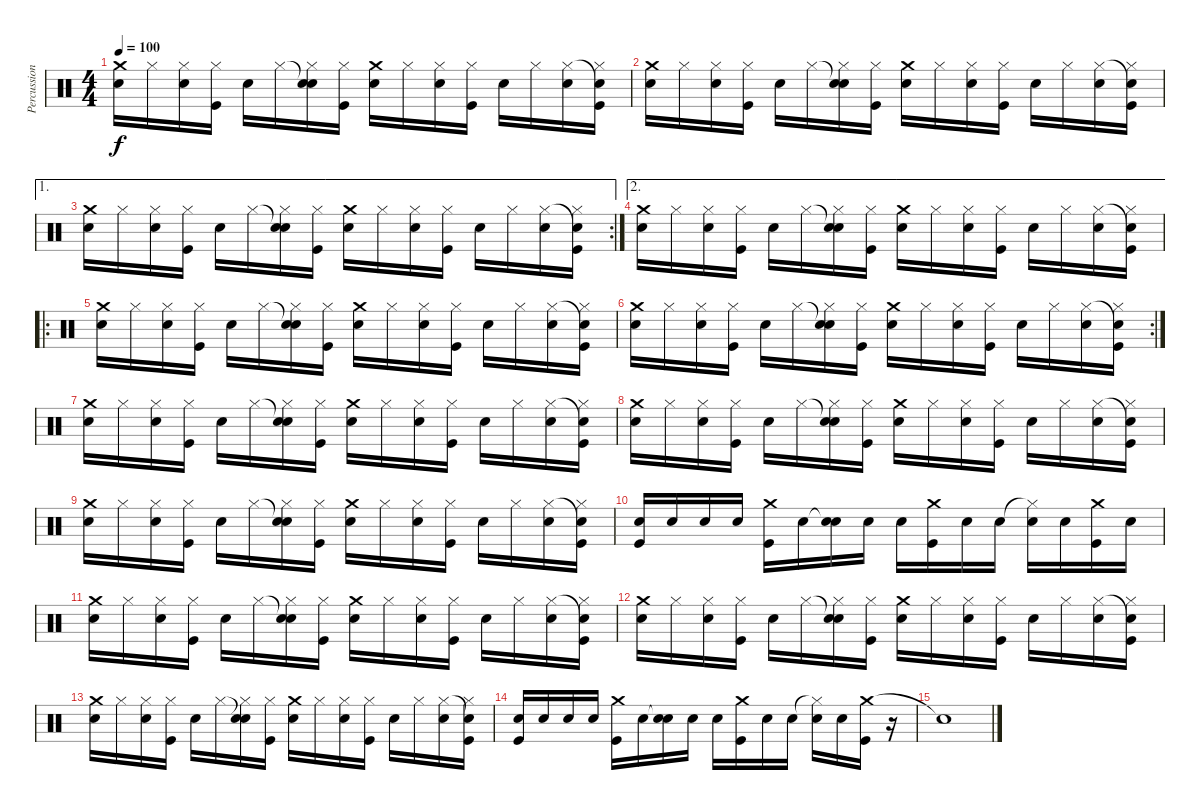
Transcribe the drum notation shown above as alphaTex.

\track ("Percussion" "Percussion") {instrument percussion}
\staff {score}
\articulation defaults
\ts (4 4)
\tempo 100
\clef neutral
\ks c
("Crash medium (hit)" "Electric Snare (hit)").16{dy f} "Hi-Hat (closed)".16 ("Hi-Hat (closed)" "Electric Snare (hit)").16 ("Hi-Hat (closed)" "Kick (hit)").16 "Electric Snare (hit)".16 "Hi-Hat (closed)".16 ("Snare (hit)"{t} "Hi-Hat (closed)" "Electric Snare (hit)").16 ("Hi-Hat (closed)" "Kick (hit)").16 ("Crash medium (hit)" "Electric Snare (hit)").16 "Hi-Hat (closed)".16 ("Hi-Hat (closed)" "Electric Snare (hit)").16 ("Hi-Hat (closed)" "Kick (hit)").16 "Electric Snare (hit)".16 "Hi-Hat (closed)".16 ("Hi-Hat (closed)" "Electric Snare (hit)").16 ("Snare (hit)"{t} "Hi-Hat (closed)" "Kick (hit)").16 |
("Crash medium (hit)" "Electric Snare (hit)").16 "Hi-Hat (closed)".16 ("Hi-Hat (closed)" "Electric Snare (hit)").16 ("Hi-Hat (closed)" "Kick (hit)").16 "Electric Snare (hit)".16 "Hi-Hat (closed)".16 ("Snare (hit)"{t} "Hi-Hat (closed)" "Electric Snare (hit)").16 ("Hi-Hat (closed)" "Kick (hit)").16 ("Crash medium (hit)" "Electric Snare (hit)").16 "Hi-Hat (closed)".16 ("Hi-Hat (closed)" "Electric Snare (hit)").16 ("Hi-Hat (closed)" "Kick (hit)").16 "Electric Snare (hit)".16 "Hi-Hat (closed)".16 ("Hi-Hat (closed)" "Electric Snare (hit)").16 ("Snare (hit)"{t} "Hi-Hat (closed)" "Kick (hit)").16 |
\ae 1
\rc 2
("Crash medium (hit)" "Electric Snare (hit)").16 "Hi-Hat (closed)".16 ("Hi-Hat (closed)" "Electric Snare (hit)").16 ("Hi-Hat (closed)" "Kick (hit)").16 "Electric Snare (hit)".16 "Hi-Hat (closed)".16 ("Snare (hit)"{t} "Hi-Hat (closed)" "Electric Snare (hit)").16 ("Hi-Hat (closed)" "Kick (hit)").16 ("Crash medium (hit)" "Electric Snare (hit)").16 "Hi-Hat (closed)".16 ("Hi-Hat (closed)" "Electric Snare (hit)").16 ("Hi-Hat (closed)" "Kick (hit)").16 "Electric Snare (hit)".16 "Hi-Hat (closed)".16 ("Hi-Hat (closed)" "Electric Snare (hit)").16 ("Snare (hit)"{t} "Hi-Hat (closed)" "Kick (hit)").16 |
\ae 2
("Crash medium (hit)" "Electric Snare (hit)").16 "Hi-Hat (closed)".16 ("Hi-Hat (closed)" "Electric Snare (hit)").16 ("Hi-Hat (closed)" "Kick (hit)").16 "Electric Snare (hit)".16 "Hi-Hat (closed)".16 ("Snare (hit)"{t} "Hi-Hat (closed)" "Electric Snare (hit)").16 ("Hi-Hat (closed)" "Kick (hit)").16 ("Crash medium (hit)" "Electric Snare (hit)").16 "Hi-Hat (closed)".16 ("Hi-Hat (closed)" "Electric Snare (hit)").16 ("Hi-Hat (closed)" "Kick (hit)").16 "Electric Snare (hit)".16 "Hi-Hat (closed)".16 ("Hi-Hat (closed)" "Electric Snare (hit)").16 ("Snare (hit)"{t} "Hi-Hat (closed)" "Kick (hit)").16 |
\ro
("Crash medium (hit)" "Electric Snare (hit)").16 "Hi-Hat (closed)".16 ("Hi-Hat (closed)" "Electric Snare (hit)").16 ("Hi-Hat (closed)" "Kick (hit)").16 "Electric Snare (hit)".16 "Hi-Hat (closed)".16 ("Snare (hit)"{t} "Hi-Hat (closed)" "Electric Snare (hit)").16 ("Hi-Hat (closed)" "Kick (hit)").16 ("Crash medium (hit)" "Electric Snare (hit)").16 "Hi-Hat (closed)".16 ("Hi-Hat (closed)" "Electric Snare (hit)").16 ("Hi-Hat (closed)" "Kick (hit)").16 "Electric Snare (hit)".16 "Hi-Hat (closed)".16 ("Hi-Hat (closed)" "Electric Snare (hit)").16 ("Snare (hit)"{t} "Hi-Hat (closed)" "Kick (hit)").16 |
\rc 2
("Crash medium (hit)" "Electric Snare (hit)").16 "Hi-Hat (closed)".16 ("Hi-Hat (closed)" "Electric Snare (hit)").16 ("Hi-Hat (closed)" "Kick (hit)").16 "Electric Snare (hit)".16 "Hi-Hat (closed)".16 ("Snare (hit)"{t} "Hi-Hat (closed)" "Electric Snare (hit)").16 ("Hi-Hat (closed)" "Kick (hit)").16 ("Crash medium (hit)" "Electric Snare (hit)").16 "Hi-Hat (closed)".16 ("Hi-Hat (closed)" "Electric Snare (hit)").16 ("Hi-Hat (closed)" "Kick (hit)").16 "Electric Snare (hit)".16 "Hi-Hat (closed)".16 ("Hi-Hat (closed)" "Electric Snare (hit)").16 ("Snare (hit)"{t} "Hi-Hat (closed)" "Kick (hit)").16 |
("Crash medium (hit)" "Electric Snare (hit)").16 "Hi-Hat (closed)".16 ("Hi-Hat (closed)" "Electric Snare (hit)").16 ("Hi-Hat (closed)" "Kick (hit)").16 "Electric Snare (hit)".16 "Hi-Hat (closed)".16 ("Snare (hit)"{t} "Hi-Hat (closed)" "Electric Snare (hit)").16 ("Hi-Hat (closed)" "Kick (hit)").16 ("Crash medium (hit)" "Electric Snare (hit)").16 "Hi-Hat (closed)".16 ("Hi-Hat (closed)" "Electric Snare (hit)").16 ("Hi-Hat (closed)" "Kick (hit)").16 "Electric Snare (hit)".16 "Hi-Hat (closed)".16 ("Hi-Hat (closed)" "Electric Snare (hit)").16 ("Snare (hit)"{t} "Hi-Hat (closed)" "Kick (hit)").16 |
("Crash medium (hit)" "Electric Snare (hit)").16 "Hi-Hat (closed)".16 ("Hi-Hat (closed)" "Electric Snare (hit)").16 ("Hi-Hat (closed)" "Kick (hit)").16 "Electric Snare (hit)".16 "Hi-Hat (closed)".16 ("Snare (hit)"{t} "Hi-Hat (closed)" "Electric Snare (hit)").16 ("Hi-Hat (closed)" "Kick (hit)").16 ("Crash medium (hit)" "Electric Snare (hit)").16 "Hi-Hat (closed)".16 ("Hi-Hat (closed)" "Electric Snare (hit)").16 ("Hi-Hat (closed)" "Kick (hit)").16 "Electric Snare (hit)".16 "Hi-Hat (closed)".16 ("Hi-Hat (closed)" "Electric Snare (hit)").16 ("Snare (hit)"{t} "Hi-Hat (closed)" "Kick (hit)").16 |
("Crash medium (hit)" "Electric Snare (hit)").16 "Hi-Hat (closed)".16 ("Hi-Hat (closed)" "Electric Snare (hit)").16 ("Hi-Hat (closed)" "Kick (hit)").16 "Electric Snare (hit)".16 "Hi-Hat (closed)".16 ("Snare (hit)"{t} "Hi-Hat (closed)" "Electric Snare (hit)").16 ("Hi-Hat (closed)" "Kick (hit)").16 ("Crash medium (hit)" "Electric Snare (hit)").16 "Hi-Hat (closed)".16 ("Hi-Hat (closed)" "Electric Snare (hit)").16 ("Hi-Hat (closed)" "Kick (hit)").16 "Electric Snare (hit)".16 "Hi-Hat (closed)".16 ("Hi-Hat (closed)" "Electric Snare (hit)").16 ("Snare (hit)"{t} "Hi-Hat (closed)" "Kick (hit)").16 |
("Electric Snare (hit)" "Kick (hit)").16 "Electric Snare (hit)".16 "Electric Snare (hit)".16 "Electric Snare (hit)".16 ("Crash medium (hit)" "Kick (hit)").16 "Electric Snare (hit)".16 ("Snare (hit)"{t} "Electric Snare (hit)").16 "Electric Snare (hit)".16 "Electric Snare (hit)".16 ("Crash medium (hit)" "Kick (hit)").16 "Electric Snare (hit)".16 "Electric Snare (hit)".16 ("Hi-Hat (closed)"{t} "Electric Snare (hit)").16 "Electric Snare (hit)".16 ("Crash medium (hit)" "Kick (hit)").16 "Electric Snare (hit)".16 |
("Crash medium (hit)" "Electric Snare (hit)").16 "Hi-Hat (closed)".16 ("Hi-Hat (closed)" "Electric Snare (hit)").16 ("Hi-Hat (closed)" "Kick (hit)").16 "Electric Snare (hit)".16 "Hi-Hat (closed)".16 ("Snare (hit)"{t} "Hi-Hat (closed)" "Electric Snare (hit)").16 ("Hi-Hat (closed)" "Kick (hit)").16 ("Crash medium (hit)" "Electric Snare (hit)").16 "Hi-Hat (closed)".16 ("Hi-Hat (closed)" "Electric Snare (hit)").16 ("Hi-Hat (closed)" "Kick (hit)").16 "Electric Snare (hit)".16 "Hi-Hat (closed)".16 ("Hi-Hat (closed)" "Electric Snare (hit)").16 ("Snare (hit)"{t} "Hi-Hat (closed)" "Kick (hit)").16 |
("Crash medium (hit)" "Electric Snare (hit)").16 "Hi-Hat (closed)".16 ("Hi-Hat (closed)" "Electric Snare (hit)").16 ("Hi-Hat (closed)" "Kick (hit)").16 "Electric Snare (hit)".16 "Hi-Hat (closed)".16 ("Snare (hit)"{t} "Hi-Hat (closed)" "Electric Snare (hit)").16 ("Hi-Hat (closed)" "Kick (hit)").16 ("Crash medium (hit)" "Electric Snare (hit)").16 "Hi-Hat (closed)".16 ("Hi-Hat (closed)" "Electric Snare (hit)").16 ("Hi-Hat (closed)" "Kick (hit)").16 "Electric Snare (hit)".16 "Hi-Hat (closed)".16 ("Hi-Hat (closed)" "Electric Snare (hit)").16 ("Snare (hit)"{t} "Hi-Hat (closed)" "Kick (hit)").16 |
("Crash medium (hit)" "Electric Snare (hit)").16 "Hi-Hat (closed)".16 ("Hi-Hat (closed)" "Electric Snare (hit)").16 ("Hi-Hat (closed)" "Kick (hit)").16 "Electric Snare (hit)".16 "Hi-Hat (closed)".16 ("Snare (hit)"{t} "Hi-Hat (closed)" "Electric Snare (hit)").16 ("Hi-Hat (closed)" "Kick (hit)").16 ("Crash medium (hit)" "Electric Snare (hit)").16 "Hi-Hat (closed)".16 ("Hi-Hat (closed)" "Electric Snare (hit)").16 ("Hi-Hat (closed)" "Kick (hit)").16 "Electric Snare (hit)".16 "Hi-Hat (closed)".16 ("Hi-Hat (closed)" "Electric Snare (hit)").16 ("Snare (hit)"{t} "Hi-Hat (closed)" "Kick (hit)").16 |
("Electric Snare (hit)" "Kick (hit)").16 "Electric Snare (hit)".16 "Electric Snare (hit)".16 "Electric Snare (hit)".16 ("Crash medium (hit)" "Kick (hit)").16 "Electric Snare (hit)".16 ("Snare (hit)"{t} "Electric Snare (hit)").16 "Electric Snare (hit)".16 "Electric Snare (hit)".16 ("Crash medium (hit)" "Kick (hit)").16 "Electric Snare (hit)".16 "Electric Snare (hit)".16 ("Hi-Hat (closed)"{t} "Electric Snare (hit)").16 "Electric Snare (hit)".16 ("Crash medium (hit)" "Kick (hit)").16 r.16 |
"Snare (hit)"{t}.1
